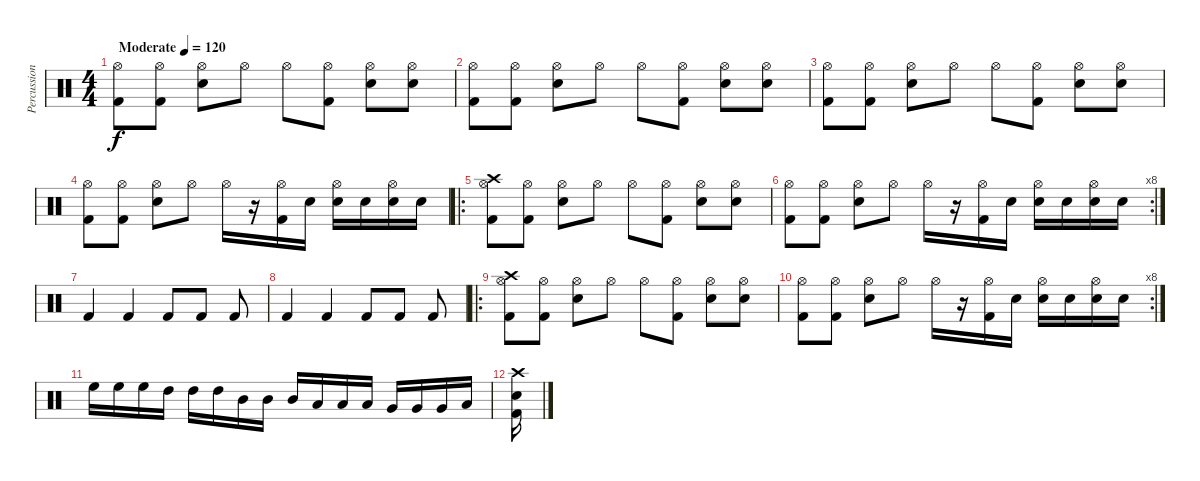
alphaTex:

\track ("Percussion" "Percussion") {instrument percussion}
\staff {score}
\articulation defaults
\ts (4 4)
\tempo (120 "Moderate")
\clef neutral
\ks c
("Hi-Hat (open)" "Kick (hit) 2").8{dy f} ("Hi-Hat (open)" "Kick (hit) 2").8 ("Hi-Hat (open)" "Electric Snare (hit)").8 "Hi-Hat (open)".8 "Hi-Hat (open)".8 ("Hi-Hat (open)" "Kick (hit) 2").8 ("Hi-Hat (open)" "Electric Snare (hit)").8 ("Hi-Hat (open)" "Electric Snare (hit)").8 |
("Hi-Hat (open)" "Kick (hit) 2").8 ("Hi-Hat (open)" "Kick (hit) 2").8 ("Hi-Hat (open)" "Electric Snare (hit)").8 "Hi-Hat (open)".8 "Hi-Hat (open)".8 ("Hi-Hat (open)" "Kick (hit) 2").8 ("Hi-Hat (open)" "Electric Snare (hit)").8 ("Hi-Hat (open)" "Electric Snare (hit)").8 |
("Hi-Hat (open)" "Kick (hit) 2").8 ("Hi-Hat (open)" "Kick (hit) 2").8 ("Hi-Hat (open)" "Electric Snare (hit)").8 "Hi-Hat (open)".8 "Hi-Hat (open)".8 ("Hi-Hat (open)" "Kick (hit) 2").8 ("Hi-Hat (open)" "Electric Snare (hit)").8 ("Hi-Hat (open)" "Electric Snare (hit)").8 |
("Hi-Hat (open)" "Kick (hit) 2").8 ("Hi-Hat (open)" "Kick (hit) 2").8 ("Hi-Hat (open)" "Electric Snare (hit)").8 "Hi-Hat (open)".8 "Hi-Hat (open)".16 r.16 ("Hi-Hat (open)" "Kick (hit) 2").16 "Electric Snare (hit)".16 ("Hi-Hat (open)" "Electric Snare (hit)").16 "Electric Snare (hit)".16 ("Hi-Hat (open)" "Electric Snare (hit)").16 "Electric Snare (hit)".16 |
\ro
("Crash high (hit)" "Hi-Hat (open)" "Kick (hit) 2").8 ("Hi-Hat (open)" "Kick (hit) 2").8 ("Hi-Hat (open)" "Electric Snare (hit)").8 "Hi-Hat (open)".8 "Hi-Hat (open)".8 ("Hi-Hat (open)" "Kick (hit) 2").8 ("Hi-Hat (open)" "Electric Snare (hit)").8 ("Hi-Hat (open)" "Electric Snare (hit)").8 |
\rc 8
("Hi-Hat (open)" "Kick (hit) 2").8 ("Hi-Hat (open)" "Kick (hit) 2").8 ("Hi-Hat (open)" "Electric Snare (hit)").8 "Hi-Hat (open)".8 "Hi-Hat (open)".16 r.16 ("Hi-Hat (open)" "Kick (hit) 2").16 "Electric Snare (hit)".16 ("Hi-Hat (open)" "Electric Snare (hit)").16 "Electric Snare (hit)".16 ("Hi-Hat (open)" "Electric Snare (hit)").16 "Electric Snare (hit)".16 |
"Kick (hit) 2".4 "Kick (hit) 2".4 "Kick (hit) 2".8 "Kick (hit) 2".8 "Kick (hit) 2".8 |
"Kick (hit) 2".4 "Kick (hit) 2".4 "Kick (hit) 2".8 "Kick (hit) 2".8 "Kick (hit) 2".8 |
\ro
("Crash high (hit)" "Hi-Hat (open)" "Kick (hit) 2").8 ("Hi-Hat (open)" "Kick (hit) 2").8 ("Hi-Hat (open)" "Electric Snare (hit)").8 "Hi-Hat (open)".8 "Hi-Hat (open)".8 ("Hi-Hat (open)" "Kick (hit) 2").8 ("Hi-Hat (open)" "Electric Snare (hit)").8 ("Hi-Hat (open)" "Electric Snare (hit)").8 |
\rc 8
("Hi-Hat (open)" "Kick (hit) 2").8 ("Hi-Hat (open)" "Kick (hit) 2").8 ("Hi-Hat (open)" "Electric Snare (hit)").8 "Hi-Hat (open)".8 "Hi-Hat (open)".16 r.16 ("Hi-Hat (open)" "Kick (hit) 2").16 "Electric Snare (hit)".16 ("Hi-Hat (open)" "Electric Snare (hit)").16 "Electric Snare (hit)".16 ("Hi-Hat (open)" "Electric Snare (hit)").16 "Electric Snare (hit)".16 |
"High Floor Tom (hit)".16 "High Floor Tom (hit)".16 "High Floor Tom (hit)".16 "High Tom (hit)".16 "High Tom (hit)".16 "High Tom (hit)".16 "Mid Tom (hit)".16 "Mid Tom (hit)".16 "Mid Tom (hit)".16 "Low Tom (hit)".16 "Low Tom (hit)".16 "Low Tom (hit)".16 "Very Low Tom (hit)".16 "Very Low Tom (hit)".16 "Very Low Tom (hit)".16 "Low Floor Tom (hit)".16 |
("Crash high (hit)" "Electric Snare (hit)" "Kick (hit) 2").16
